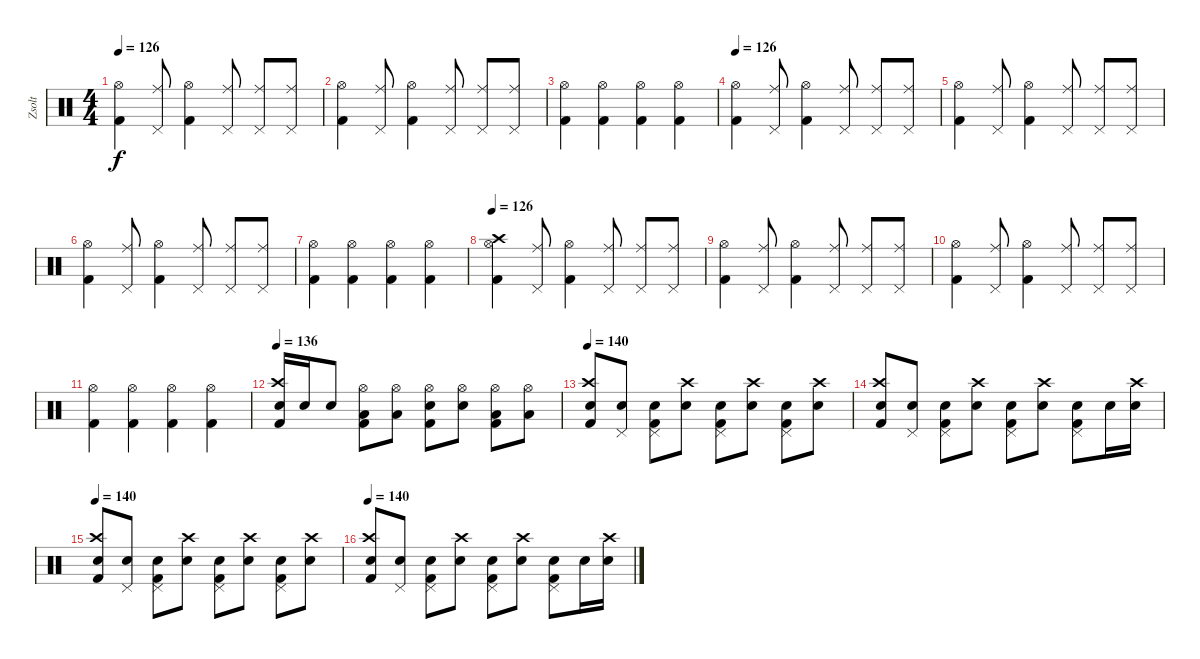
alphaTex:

\track ("Zsolt" "Zsolt") {instrument percussion}
\staff {score}
\articulation defaults
\ts (4 4)
\tempo 126
\clef neutral
\ks c
("Hi-Hat (open)" "Kick (hit) 2").4{dy f} ("Pedal Hi-Hat (hit)" "Ride (middle)").8 ("Hi-Hat (open)" "Kick (hit) 2").4 ("Pedal Hi-Hat (hit)" "Ride (middle)").8 ("Pedal Hi-Hat (hit)" "Ride (middle)").8 ("Pedal Hi-Hat (hit)" "Ride (middle)").8 |
("Hi-Hat (open)" "Kick (hit) 2").4 ("Pedal Hi-Hat (hit)" "Ride (middle)").8 ("Hi-Hat (open)" "Kick (hit) 2").4 ("Pedal Hi-Hat (hit)" "Ride (middle)").8 ("Pedal Hi-Hat (hit)" "Ride (middle)").8 ("Pedal Hi-Hat (hit)" "Ride (middle)").8 |
("Hi-Hat (open)" "Kick (hit) 2").4 ("Hi-Hat (open)" "Kick (hit) 2").4 ("Hi-Hat (open)" "Kick (hit) 2").4 ("Hi-Hat (open)" "Kick (hit) 2").4 |
\tempo 126
("Hi-Hat (open)" "Kick (hit) 2").4 ("Pedal Hi-Hat (hit)" "Ride (middle)").8 ("Hi-Hat (open)" "Kick (hit) 2").4 ("Pedal Hi-Hat (hit)" "Ride (middle)").8 ("Pedal Hi-Hat (hit)" "Ride (middle)").8 ("Pedal Hi-Hat (hit)" "Ride (middle)").8 |
("Hi-Hat (open)" "Kick (hit) 2").4 ("Pedal Hi-Hat (hit)" "Ride (middle)").8 ("Hi-Hat (open)" "Kick (hit) 2").4 ("Pedal Hi-Hat (hit)" "Ride (middle)").8 ("Pedal Hi-Hat (hit)" "Ride (middle)").8 ("Pedal Hi-Hat (hit)" "Ride (middle)").8 |
("Hi-Hat (open)" "Kick (hit) 2").4 ("Pedal Hi-Hat (hit)" "Ride (middle)").8 ("Hi-Hat (open)" "Kick (hit) 2").4 ("Pedal Hi-Hat (hit)" "Ride (middle)").8 ("Pedal Hi-Hat (hit)" "Ride (middle)").8 ("Pedal Hi-Hat (hit)" "Ride (middle)").8 |
("Hi-Hat (open)" "Kick (hit) 2").4 ("Hi-Hat (open)" "Kick (hit) 2").4 ("Hi-Hat (open)" "Kick (hit) 2").4 ("Hi-Hat (open)" "Kick (hit) 2").4 |
\tempo 126
("Hi-Hat (open)" "Crash high (hit)" "Kick (hit) 2").4 ("Pedal Hi-Hat (hit)" "Ride (middle)").8 ("Hi-Hat (open)" "Kick (hit) 2").4 ("Pedal Hi-Hat (hit)" "Ride (middle)").8 ("Pedal Hi-Hat (hit)" "Ride (middle)").8 ("Pedal Hi-Hat (hit)" "Ride (middle)").8 |
("Hi-Hat (open)" "Kick (hit) 2").4 ("Pedal Hi-Hat (hit)" "Ride (middle)").8 ("Hi-Hat (open)" "Kick (hit) 2").4 ("Pedal Hi-Hat (hit)" "Ride (middle)").8 ("Pedal Hi-Hat (hit)" "Ride (middle)").8 ("Pedal Hi-Hat (hit)" "Ride (middle)").8 |
("Hi-Hat (open)" "Kick (hit) 2").4 ("Pedal Hi-Hat (hit)" "Ride (middle)").8 ("Hi-Hat (open)" "Kick (hit) 2").4 ("Pedal Hi-Hat (hit)" "Ride (middle)").8 ("Pedal Hi-Hat (hit)" "Ride (middle)").8 ("Pedal Hi-Hat (hit)" "Ride (middle)").8 |
("Hi-Hat (open)" "Kick (hit) 2").4 ("Hi-Hat (open)" "Kick (hit) 2").4 ("Hi-Hat (open)" "Kick (hit) 2").4 ("Hi-Hat (open)" "Kick (hit) 2").4 |
\tempo 136
("Crash high (hit)" "Snare (hit) 2" "Kick (hit) 2").16 "Snare (hit) 2".16 "Snare (hit) 2".8 ("Hi-Hat (open)" "Low Tom (hit)" "Kick (hit) 2").8 ("Hi-Hat (open)" "Low Tom (hit)").8 ("Hi-Hat (open)" "Snare (hit) 2" "Kick (hit) 2").8 ("Hi-Hat (open)" "Snare (hit) 2").8 ("Hi-Hat (open)" "Low Tom (hit)" "Kick (hit) 2").8 ("Hi-Hat (open)" "Low Tom (hit)").8 |
\tempo 140
("Crash high (hit)" "Snare (hit) 2" "Kick (hit) 2").8 ("Pedal Hi-Hat (hit)" "Snare (hit) 2").8 ("Pedal Hi-Hat (hit)" "Snare (hit) 2" "Kick (hit) 2").8 ("Crash high (hit)" "Snare (hit) 2").8 ("Pedal Hi-Hat (hit)" "Snare (hit) 2" "Kick (hit) 2").8 ("Crash high (hit)" "Snare (hit) 2").8 ("Pedal Hi-Hat (hit)" "Snare (hit) 2" "Kick (hit) 2").8 ("Crash high (hit)" "Snare (hit) 2").8 |
("Crash high (hit)" "Snare (hit) 2" "Kick (hit) 2").8 ("Pedal Hi-Hat (hit)" "Snare (hit) 2").8 ("Pedal Hi-Hat (hit)" "Snare (hit) 2" "Kick (hit) 2").8 ("Crash high (hit)" "Snare (hit) 2").8 ("Pedal Hi-Hat (hit)" "Snare (hit) 2" "Kick (hit) 2").8 ("Crash high (hit)" "Snare (hit) 2").8 ("Pedal Hi-Hat (hit)" "Snare (hit) 2" "Kick (hit) 2").8 "Snare (hit) 2".16 ("Crash high (hit)" "Snare (hit) 2").16 |
\tempo 140
("Crash high (hit)" "Snare (hit) 2" "Kick (hit) 2").8 ("Pedal Hi-Hat (hit)" "Snare (hit) 2").8 ("Pedal Hi-Hat (hit)" "Snare (hit) 2" "Kick (hit) 2").8 ("Crash high (hit)" "Snare (hit) 2").8 ("Pedal Hi-Hat (hit)" "Snare (hit) 2" "Kick (hit) 2").8 ("Crash high (hit)" "Snare (hit) 2").8 ("Pedal Hi-Hat (hit)" "Snare (hit) 2" "Kick (hit) 2").8 ("Crash high (hit)" "Snare (hit) 2").8 |
\tempo 140
("Crash high (hit)" "Snare (hit) 2" "Kick (hit) 2").8 ("Pedal Hi-Hat (hit)" "Snare (hit) 2").8 ("Pedal Hi-Hat (hit)" "Snare (hit) 2" "Kick (hit) 2").8 ("Crash high (hit)" "Snare (hit) 2").8 ("Pedal Hi-Hat (hit)" "Snare (hit) 2" "Kick (hit) 2").8 ("Crash high (hit)" "Snare (hit) 2").8 ("Pedal Hi-Hat (hit)" "Snare (hit) 2" "Kick (hit) 2").8 "Snare (hit) 2".16 ("Crash high (hit)" "Snare (hit) 2").16
